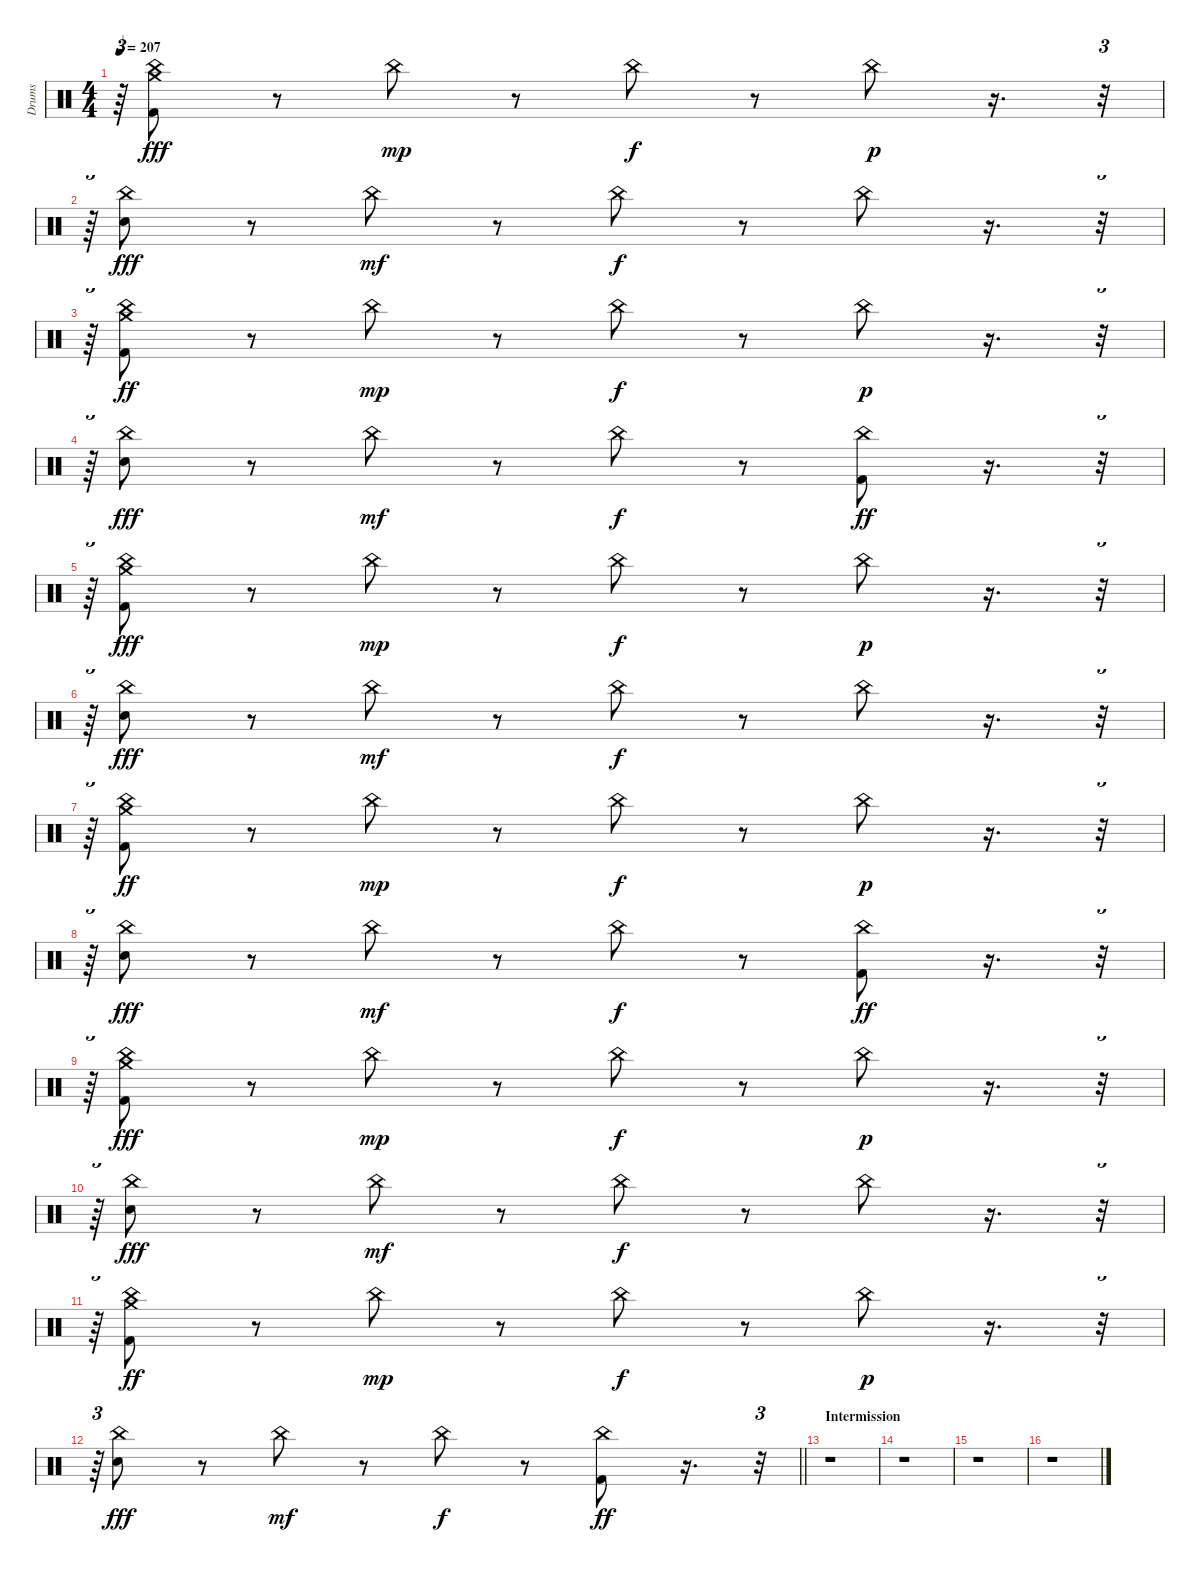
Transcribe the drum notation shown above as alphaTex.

\track ("Drums" "Drums") {instrument percussion}
\staff {score}
\articulation defaults
\ts (4 4)
\tempo 207
\clef neutral
\ks c
r.64{tu (3 2) dy ff} ("Kick (hit) 2" "China (hit)" "Crash medium (hit)").8{dy fff} r.8 "China (hit)".8{dy mp} r.8 "China (hit)".8{dy f} r.8 "China (hit)".8{dy p} r.16{d} r.32{tu (3 2)} |
r.64{tu (3 2)} ("Snare (hit) 2" "China (hit)").8{dy fff} r.8 "China (hit)".8{dy mf} r.8 "China (hit)".8{dy f} r.8 "China (hit)".8 r.16{d} r.32{tu (3 2)} |
r.64{tu (3 2)} ("Kick (hit) 2" "Crash medium (hit)" "China (hit)").8{dy ff} r.8 "China (hit)".8{dy mp} r.8 "China (hit)".8{dy f} r.8 "China (hit)".8{dy p} r.16{d} r.32{tu (3 2)} |
r.64{tu (3 2)} ("Snare (hit) 2" "China (hit)").8{dy fff} r.8 "China (hit)".8{dy mf} r.8 "China (hit)".8{dy f} r.8 ("Kick (hit) 2" "China (hit)").8{dy ff} r.16{d} r.32{tu (3 2)} |
r.64{tu (3 2)} ("Kick (hit) 2" "China (hit)" "Crash medium (hit)").8{dy fff} r.8 "China (hit)".8{dy mp} r.8 "China (hit)".8{dy f} r.8 "China (hit)".8{dy p} r.16{d} r.32{tu (3 2)} |
r.64{tu (3 2)} ("Snare (hit) 2" "China (hit)").8{dy fff} r.8 "China (hit)".8{dy mf} r.8 "China (hit)".8{dy f} r.8 "China (hit)".8 r.16{d} r.32{tu (3 2)} |
r.64{tu (3 2)} ("Kick (hit) 2" "Crash medium (hit)" "China (hit)").8{dy ff} r.8 "China (hit)".8{dy mp} r.8 "China (hit)".8{dy f} r.8 "China (hit)".8{dy p} r.16{d} r.32{tu (3 2)} |
r.64{tu (3 2)} ("Snare (hit) 2" "China (hit)").8{dy fff} r.8 "China (hit)".8{dy mf} r.8 "China (hit)".8{dy f} r.8 ("Kick (hit) 2" "China (hit)").8{dy ff} r.16{d} r.32{tu (3 2)} |
r.64{tu (3 2)} ("Kick (hit) 2" "China (hit)" "Crash medium (hit)").8{dy fff} r.8 "China (hit)".8{dy mp} r.8 "China (hit)".8{dy f} r.8 "China (hit)".8{dy p} r.16{d} r.32{tu (3 2)} |
r.64{tu (3 2)} ("Snare (hit) 2" "China (hit)").8{dy fff} r.8 "China (hit)".8{dy mf} r.8 "China (hit)".8{dy f} r.8 "China (hit)".8 r.16{d} r.32{tu (3 2)} |
r.64{tu (3 2)} ("Kick (hit) 2" "Crash medium (hit)" "China (hit)").8{dy ff} r.8 "China (hit)".8{dy mp} r.8 "China (hit)".8{dy f} r.8 "China (hit)".8{dy p} r.16{d} r.32{tu (3 2)} |
\barLineRight lightlight
r.64{tu (3 2)} ("Snare (hit) 2" "China (hit)").8{dy fff} r.8 "China (hit)".8{dy mf} r.8 "China (hit)".8{dy f} r.8 ("Kick (hit) 2" "China (hit)").8{dy ff} r.16{d} r.32{tu (3 2)} |
\section ("" "Intermission")
r.1 |
r.1 |
r.1 |
r.1
